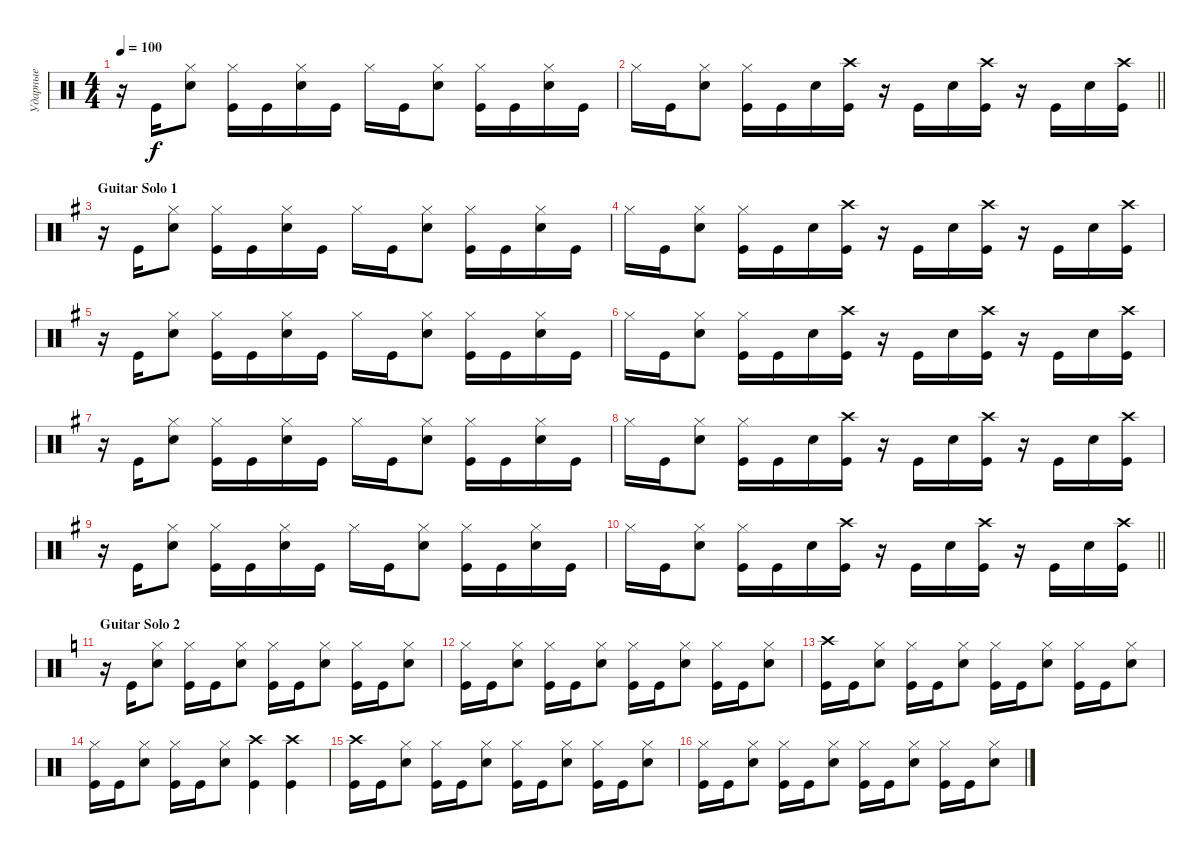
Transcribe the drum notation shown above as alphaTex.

\track ("Ударные" "Ударные") {instrument percussion}
\staff {score}
\articulation defaults
\ts (4 4)
\tempo 100
\clef neutral
\ks aminor
r.16{dy f} "Kick (hit)".16 ("Snare (hit) 2" "Hi-Hat (closed)").8 ("Kick (hit)" "Hi-Hat (closed)").16 "Kick (hit)".16 ("Snare (hit) 2" "Hi-Hat (closed)").16 "Kick (hit)".16 "Hi-Hat (closed)".16 "Kick (hit)".16 ("Snare (hit) 2" "Hi-Hat (closed)").8 ("Kick (hit)" "Hi-Hat (closed)").16 "Kick (hit)".16 ("Snare (hit) 2" "Hi-Hat (closed)").16 "Kick (hit)".16 |
\barLineRight lightlight "Hi-Hat (closed)".16 "Kick (hit)".16
("Snare (hit) 2" "Hi-Hat (closed)").8 ("Kick (hit)" "Hi-Hat (closed)").16 "Kick (hit)".16 "Snare (hit) 2".16 ("Kick (hit)" "Crash high (hit)").16 r.16 "Kick (hit)".16 "Snare (hit) 2".16 ("Kick (hit)" "Crash high (hit)").16 r.16 "Kick (hit)".16 "Snare (hit) 2".16 ("Kick (hit)" "Crash high (hit)").16 |
\section ("" "Guitar Solo 1")
\ks eminor
r.16 "Kick (hit)".16 ("Snare (hit) 2" "Hi-Hat (closed)").8 ("Kick (hit)" "Hi-Hat (closed)").16 "Kick (hit)".16 ("Snare (hit) 2" "Hi-Hat (closed)").16 "Kick (hit)".16 "Hi-Hat (closed)".16 "Kick (hit)".16 ("Snare (hit) 2" "Hi-Hat (closed)").8 ("Kick (hit)" "Hi-Hat (closed)").16 "Kick (hit)".16 ("Snare (hit) 2" "Hi-Hat (closed)").16 "Kick (hit)".16 |
"Hi-Hat (closed)".16 "Kick (hit)".16 ("Snare (hit) 2" "Hi-Hat (closed)").8 ("Kick (hit)" "Hi-Hat (closed)").16 "Kick (hit)".16 "Snare (hit) 2".16 ("Kick (hit)" "Crash high (hit)").16 r.16 "Kick (hit)".16 "Snare (hit) 2".16 ("Kick (hit)" "Crash high (hit)").16 r.16 "Kick (hit)".16 "Snare (hit) 2".16 ("Kick (hit)" "Crash high (hit)").16 |
r.16 "Kick (hit)".16 ("Snare (hit) 2" "Hi-Hat (closed)").8 ("Kick (hit)" "Hi-Hat (closed)").16 "Kick (hit)".16 ("Snare (hit) 2" "Hi-Hat (closed)").16 "Kick (hit)".16 "Hi-Hat (closed)".16 "Kick (hit)".16 ("Snare (hit) 2" "Hi-Hat (closed)").8 ("Kick (hit)" "Hi-Hat (closed)").16 "Kick (hit)".16 ("Snare (hit) 2" "Hi-Hat (closed)").16 "Kick (hit)".16 |
"Hi-Hat (closed)".16 "Kick (hit)".16 ("Snare (hit) 2" "Hi-Hat (closed)").8 ("Kick (hit)" "Hi-Hat (closed)").16 "Kick (hit)".16 "Snare (hit) 2".16 ("Kick (hit)" "Crash high (hit)").16 r.16 "Kick (hit)".16 "Snare (hit) 2".16 ("Kick (hit)" "Crash high (hit)").16 r.16 "Kick (hit)".16 "Snare (hit) 2".16 ("Kick (hit)" "Crash high (hit)").16 |
r.16 "Kick (hit)".16 ("Snare (hit) 2" "Hi-Hat (closed)").8 ("Kick (hit)" "Hi-Hat (closed)").16 "Kick (hit)".16 ("Snare (hit) 2" "Hi-Hat (closed)").16 "Kick (hit)".16 "Hi-Hat (closed)".16 "Kick (hit)".16 ("Snare (hit) 2" "Hi-Hat (closed)").8 ("Kick (hit)" "Hi-Hat (closed)").16 "Kick (hit)".16 ("Snare (hit) 2" "Hi-Hat (closed)").16 "Kick (hit)".16 |
"Hi-Hat (closed)".16 "Kick (hit)".16 ("Snare (hit) 2" "Hi-Hat (closed)").8 ("Kick (hit)" "Hi-Hat (closed)").16 "Kick (hit)".16 "Snare (hit) 2".16 ("Kick (hit)" "Crash high (hit)").16 r.16 "Kick (hit)".16 "Snare (hit) 2".16 ("Kick (hit)" "Crash high (hit)").16 r.16 "Kick (hit)".16 "Snare (hit) 2".16 ("Kick (hit)" "Crash high (hit)").16 |
r.16 "Kick (hit)".16 ("Snare (hit) 2" "Hi-Hat (closed)").8 ("Kick (hit)" "Hi-Hat (closed)").16 "Kick (hit)".16 ("Snare (hit) 2" "Hi-Hat (closed)").16 "Kick (hit)".16 "Hi-Hat (closed)".16 "Kick (hit)".16 ("Snare (hit) 2" "Hi-Hat (closed)").8 ("Kick (hit)" "Hi-Hat (closed)").16 "Kick (hit)".16 ("Snare (hit) 2" "Hi-Hat (closed)").16 "Kick (hit)".16 |
\barLineRight lightlight "Hi-Hat (closed)".16 "Kick (hit)".16
("Snare (hit) 2" "Hi-Hat (closed)").8 ("Kick (hit)" "Hi-Hat (closed)").16 "Kick (hit)".16 "Snare (hit) 2".16 ("Kick (hit)" "Crash high (hit)").16 r.16 "Kick (hit)".16 "Snare (hit) 2".16 ("Kick (hit)" "Crash high (hit)").16 r.16 "Kick (hit)".16 "Snare (hit) 2".16 ("Kick (hit)" "Crash high (hit)").16 |
\section ("" "Guitar Solo 2")
\ks aminor
r.16 "Kick (hit)".16 ("Snare (hit) 2" "Hi-Hat (closed)").8 ("Kick (hit)" "Hi-Hat (closed)").16 "Kick (hit)".16 ("Snare (hit) 2" "Hi-Hat (closed)").8 ("Hi-Hat (closed)" "Kick (hit)").16 "Kick (hit)".16 ("Snare (hit) 2" "Hi-Hat (closed)").8 ("Kick (hit)" "Hi-Hat (closed)").16 "Kick (hit)".16 ("Snare (hit) 2" "Hi-Hat (closed)").8 |
("Hi-Hat (closed)" "Kick (hit)").16 "Kick (hit)".16 ("Snare (hit) 2" "Hi-Hat (closed)").8 ("Kick (hit)" "Hi-Hat (closed)").16 "Kick (hit)".16 ("Snare (hit) 2" "Hi-Hat (closed)").8 ("Kick (hit)" "Hi-Hat (closed)").16 "Kick (hit)".16 ("Snare (hit) 2" "Hi-Hat (closed)").8 ("Kick (hit)" "Hi-Hat (closed)").16 "Kick (hit)".16 ("Snare (hit) 2" "Hi-Hat (closed)").8 |
("Kick (hit)" "Crash high (hit)").16 "Kick (hit)".16 ("Snare (hit) 2" "Hi-Hat (closed)").8 ("Kick (hit)" "Hi-Hat (closed)").16 "Kick (hit)".16 ("Snare (hit) 2" "Hi-Hat (closed)").8 ("Hi-Hat (closed)" "Kick (hit)").16 "Kick (hit)".16 ("Snare (hit) 2" "Hi-Hat (closed)").8 ("Kick (hit)" "Hi-Hat (closed)").16 "Kick (hit)".16 ("Snare (hit) 2" "Hi-Hat (closed)").8 |
("Hi-Hat (closed)" "Kick (hit)").16 "Kick (hit)".16 ("Snare (hit) 2" "Hi-Hat (closed)").8 ("Kick (hit)" "Hi-Hat (closed)").16 "Kick (hit)".16 ("Snare (hit) 2" "Hi-Hat (closed)").8 ("Kick (hit)" "Crash high (hit)").4 ("Kick (hit)" "Crash high (hit)").4 |
("Kick (hit)" "Crash high (hit)").16 "Kick (hit)".16 ("Snare (hit) 2" "Hi-Hat (closed)").8 ("Kick (hit)" "Hi-Hat (closed)").16 "Kick (hit)".16 ("Snare (hit) 2" "Hi-Hat (closed)").8 ("Hi-Hat (closed)" "Kick (hit)").16 "Kick (hit)".16 ("Snare (hit) 2" "Hi-Hat (closed)").8 ("Kick (hit)" "Hi-Hat (closed)").16 "Kick (hit)".16 ("Snare (hit) 2" "Hi-Hat (closed)").8 |
("Hi-Hat (closed)" "Kick (hit)").16 "Kick (hit)".16 ("Snare (hit) 2" "Hi-Hat (closed)").8 ("Kick (hit)" "Hi-Hat (closed)").16 "Kick (hit)".16 ("Snare (hit) 2" "Hi-Hat (closed)").8 ("Kick (hit)" "Hi-Hat (closed)").16 "Kick (hit)".16 ("Snare (hit) 2" "Hi-Hat (closed)").8 ("Kick (hit)" "Hi-Hat (closed)").16 "Kick (hit)".16 ("Snare (hit) 2" "Hi-Hat (closed)").8
